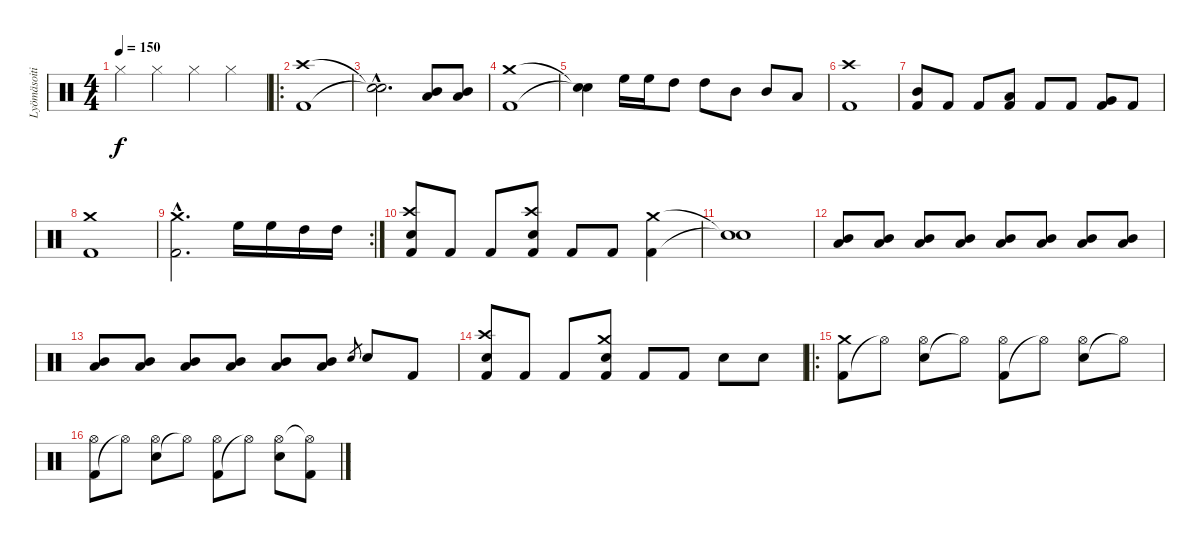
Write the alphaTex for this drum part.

\track ("Lyömäsoitin" "Lyömäsoiti") {instrument percussion}
\staff {score}
\articulation defaults
\ts (4 4)
\tempo 150
\clef neutral
\ks c "Hi-Hat (closed)".4{dy f} "Hi-Hat (closed)".4 "Hi-Hat (closed)".4 "Hi-Hat (closed)".4
|
\ro
("Kick (hit) 2" "Crash high (hit)").1 |
("Snare (hit)"{hac t} "Snare (hit)"{hac t}).2{d} ("Low Tom (hit)" "Mid Tom (hit)").8 ("Low Tom (hit)" "Mid Tom (hit)").8 |
("Kick (hit) 2" "Crash medium (hit)").1 |
("Snare (hit)"{t} "Snare (hit)"{t}).4 "High Floor Tom (hit)".16 "High Floor Tom (hit)".16 "High Tom (hit)".8 "High Tom (hit)".8 "Mid Tom (hit)".8 "Mid Tom (hit)".8 "Low Tom (hit)".8 |
("Kick (hit) 2" "Crash high (hit)").1 |
("Mid Tom (hit)" "Kick (hit) 2").8 "Kick (hit) 2".8 "Kick (hit) 2".8 ("Low Tom (hit)" "Kick (hit) 2").8 "Kick (hit) 2".8 "Kick (hit) 2".8 ("Very Low Tom (hit)" "Kick (hit) 2").8 "Kick (hit) 2".8 |
("Kick (hit) 2" "Crash medium (hit)").1 |
\rc 2
("Kick (hit) 2"{hac} "Crash medium (hit)"{hac}).2{d} "High Floor Tom (hit)".16 "High Floor Tom (hit)".16 "High Tom (hit)".16 "High Tom (hit)".16 |
("Electric Snare (hit)" "Kick (hit) 2" "Crash high (hit)").8 "Kick (hit) 2".8 "Kick (hit) 2".8 ("Electric Snare (hit)" "Kick (hit) 2" "Crash high (hit)").8 "Kick (hit) 2".8 "Kick (hit) 2".8 ("Kick (hit) 2" "Crash medium (hit)").4 |
("Snare (hit)"{t} "Snare (hit)"{t}).1{volume 6} |
("Low Tom (hit)" "Mid Tom (hit)").8{volume 9} ("Low Tom (hit)" "Mid Tom (hit)").8 ("Low Tom (hit)" "Mid Tom (hit)").8 ("Low Tom (hit)" "Mid Tom (hit)").8 ("Low Tom (hit)" "Mid Tom (hit)").8 ("Low Tom (hit)" "Mid Tom (hit)").8 ("Low Tom (hit)" "Mid Tom (hit)").8 ("Low Tom (hit)" "Mid Tom (hit)").8 |
("Low Tom (hit)" "Mid Tom (hit)").8{volume 13} ("Low Tom (hit)" "Mid Tom (hit)").8 ("Low Tom (hit)" "Mid Tom (hit)").8 ("Low Tom (hit)" "Mid Tom (hit)").8 ("Low Tom (hit)" "Mid Tom (hit)").8 ("Low Tom (hit)" "Mid Tom (hit)").8 "Electric Snare (hit)".8{gr} "Electric Snare (hit)".8 "Kick (hit) 2".8 |
("Electric Snare (hit)" "Kick (hit) 2" "Crash high (hit)").8 "Kick (hit) 2".8 "Kick (hit) 2".8 ("Electric Snare (hit)" "Kick (hit) 2" "Crash medium (hit)").8 "Kick (hit) 2".8 "Kick (hit) 2".8 "Electric Snare (hit)".8 "Electric Snare (hit)".8 |
\ro
("Kick (hit) 2" "Crash medium (hit)").8 "Hi-Hat (open)"{t}.8 ("Electric Snare (hit)" "Hi-Hat (open)").8 "Hi-Hat (open)"{t}.8 ("Kick (hit) 2" "Hi-Hat (open)").8 "Hi-Hat (open)"{t}.8 ("Electric Snare (hit)" "Hi-Hat (open)").8 "Hi-Hat (open)"{t}.8 |
("Kick (hit) 2" "Hi-Hat (open)").8 "Hi-Hat (open)"{t}.8 ("Electric Snare (hit)" "Hi-Hat (open)").8 "Hi-Hat (open)"{t}.8 ("Kick (hit) 2" "Hi-Hat (open)").8 "Hi-Hat (open)"{t}.8 ("Electric Snare (hit)" "Hi-Hat (open)").8 ("Kick (hit) 2" "Hi-Hat (open)"{t}).8
